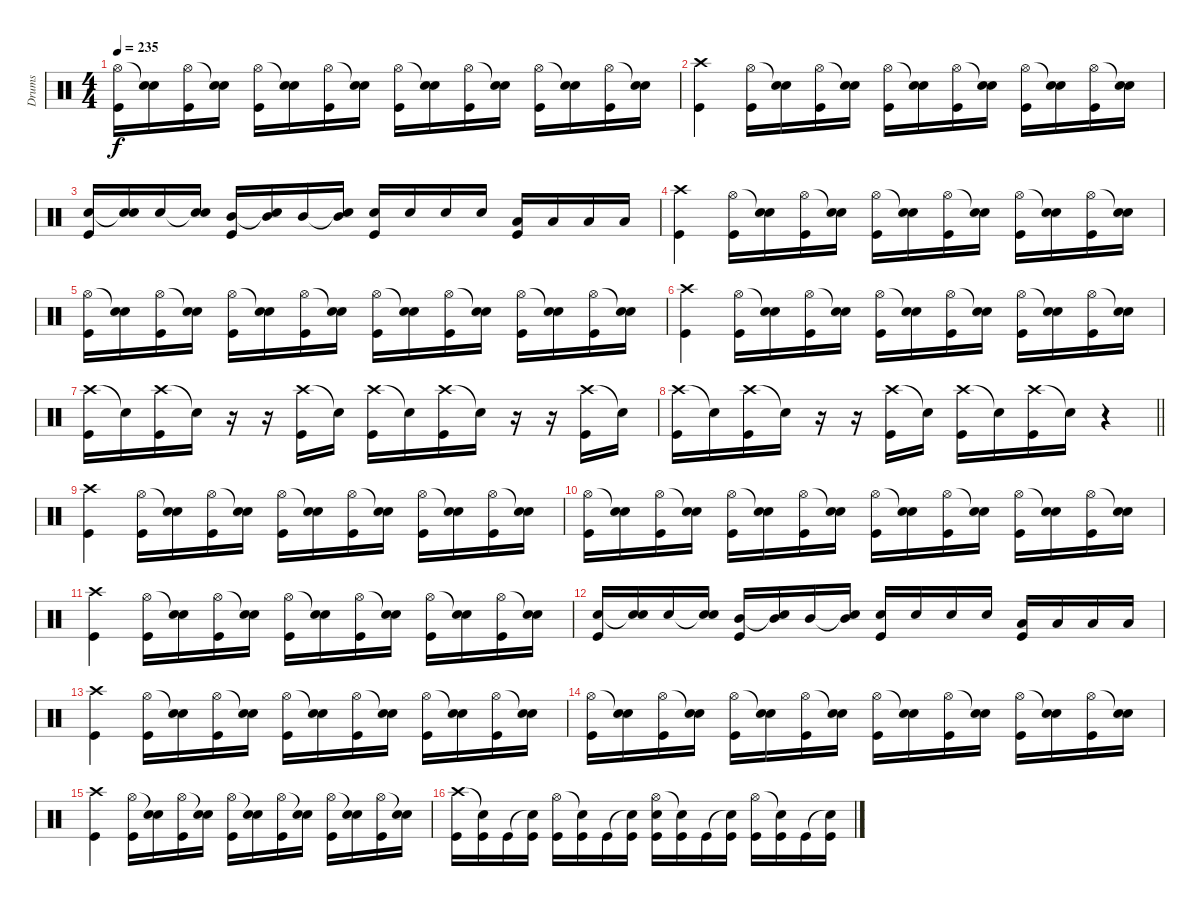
\track ("Drums" "Drums") {instrument percussion}
\staff {score}
\articulation defaults
\ts (4 4)
\tempo 235
\clef neutral
\ks c
("Hi-Hat (open)" "Kick (hit)").16{dy f} ("Snare (hit)"{t} "Electric Snare (hit)").16 ("Hi-Hat (open)" "Kick (hit)").16 ("Snare (hit)"{t} "Electric Snare (hit)").16 ("Hi-Hat (open)" "Kick (hit)").16 ("Snare (hit)"{t} "Electric Snare (hit)").16 ("Hi-Hat (open)" "Kick (hit)").16 ("Snare (hit)"{t} "Electric Snare (hit)").16 ("Hi-Hat (open)" "Kick (hit)").16 ("Snare (hit)"{t} "Electric Snare (hit)").16 ("Hi-Hat (open)" "Kick (hit)").16 ("Snare (hit)"{t} "Electric Snare (hit)").16 ("Hi-Hat (open)" "Kick (hit)").16 ("Snare (hit)"{t} "Electric Snare (hit)").16 ("Hi-Hat (open)" "Kick (hit)").16 ("Snare (hit)"{t} "Electric Snare (hit)").16 |
("Crash high (hit)" "Kick (hit)").4 ("Hi-Hat (open)" "Kick (hit)").16 ("Snare (hit)"{t} "Electric Snare (hit)").16 ("Hi-Hat (open)" "Kick (hit)").16 ("Snare (hit)"{t} "Electric Snare (hit)").16 ("Hi-Hat (open)" "Kick (hit)").16 ("Snare (hit)"{t} "Electric Snare (hit)").16 ("Hi-Hat (open)" "Kick (hit)").16 ("Snare (hit)"{t} "Electric Snare (hit)").16 ("Hi-Hat (open)" "Kick (hit)").16 ("Snare (hit)"{t} "Electric Snare (hit)").16 ("Hi-Hat (open)" "Kick (hit)").16 ("Snare (hit)"{t} "Electric Snare (hit)").16 |
("Electric Snare (hit)" "Kick (hit)").16 ("Snare (hit)"{t} "Electric Snare (hit)").16 "Electric Snare (hit)".16 ("Snare (hit)"{t} "Electric Snare (hit)").16 ("Mid Tom (hit)" "Kick (hit)").16 ("Snare (hit)"{t} "Mid Tom (hit)").16 "Mid Tom (hit)".16 ("Snare (hit)"{t} "Mid Tom (hit)").16 ("Electric Snare (hit)" "Kick (hit)").16 "Electric Snare (hit)".16 "Electric Snare (hit)".16 "Electric Snare (hit)".16 ("Low Tom (hit)" "Kick (hit)").16 "Low Tom (hit)".16 "Low Tom (hit)".16 "Low Tom (hit)".16 |
("Crash high (hit)" "Kick (hit)").4 ("Hi-Hat (open)" "Kick (hit)").16 ("Snare (hit)"{t} "Electric Snare (hit)").16 ("Hi-Hat (open)" "Kick (hit)").16 ("Snare (hit)"{t} "Electric Snare (hit)").16 ("Hi-Hat (open)" "Kick (hit)").16 ("Snare (hit)"{t} "Electric Snare (hit)").16 ("Hi-Hat (open)" "Kick (hit)").16 ("Snare (hit)"{t} "Electric Snare (hit)").16 ("Hi-Hat (open)" "Kick (hit)").16 ("Snare (hit)"{t} "Electric Snare (hit)").16 ("Hi-Hat (open)" "Kick (hit)").16 ("Snare (hit)"{t} "Electric Snare (hit)").16 |
("Hi-Hat (open)" "Kick (hit)").16 ("Snare (hit)"{t} "Electric Snare (hit)").16 ("Hi-Hat (open)" "Kick (hit)").16 ("Snare (hit)"{t} "Electric Snare (hit)").16 ("Hi-Hat (open)" "Kick (hit)").16 ("Snare (hit)"{t} "Electric Snare (hit)").16 ("Hi-Hat (open)" "Kick (hit)").16 ("Snare (hit)"{t} "Electric Snare (hit)").16 ("Hi-Hat (open)" "Kick (hit)").16 ("Snare (hit)"{t} "Electric Snare (hit)").16 ("Hi-Hat (open)" "Kick (hit)").16 ("Snare (hit)"{t} "Electric Snare (hit)").16 ("Hi-Hat (open)" "Kick (hit)").16 ("Snare (hit)"{t} "Electric Snare (hit)").16 ("Hi-Hat (open)" "Kick (hit)").16 ("Snare (hit)"{t} "Electric Snare (hit)").16 |
("Crash high (hit)" "Kick (hit)").4 ("Hi-Hat (open)" "Kick (hit)").16 ("Snare (hit)"{t} "Electric Snare (hit)").16 ("Hi-Hat (open)" "Kick (hit)").16 ("Snare (hit)"{t} "Electric Snare (hit)").16 ("Hi-Hat (open)" "Kick (hit)").16 ("Snare (hit)"{t} "Electric Snare (hit)").16 ("Hi-Hat (open)" "Kick (hit)").16 ("Snare (hit)"{t} "Electric Snare (hit)").16 ("Hi-Hat (open)" "Kick (hit)").16 ("Snare (hit)"{t} "Electric Snare (hit)").16 ("Hi-Hat (open)" "Kick (hit)").16 ("Snare (hit)"{t} "Electric Snare (hit)").16 |
("Crash high (hit)" "Kick (hit)").16 "Snare (hit)"{t}.16 ("Crash high (hit)" "Kick (hit)").16 "Snare (hit)"{t}.16 r.16 r.16 ("Crash high (hit)" "Kick (hit)").16 "Snare (hit)"{t}.16 ("Crash high (hit)" "Kick (hit)").16 "Snare (hit)"{t}.16 ("Crash high (hit)" "Kick (hit)").16 "Snare (hit)"{t}.16 r.16 r.16 ("Crash high (hit)" "Kick (hit)").16 "Snare (hit)"{t}.16 |
\barLineRight lightlight
("Crash high (hit)" "Kick (hit)").16 "Snare (hit)"{t}.16 ("Crash high (hit)" "Kick (hit)").16 "Snare (hit)"{t}.16 r.16 r.16 ("Crash high (hit)" "Kick (hit)").16 "Snare (hit)"{t}.16 ("Crash high (hit)" "Kick (hit)").16 "Snare (hit)"{t}.16 ("Crash high (hit)" "Kick (hit)").16 "Snare (hit)"{t}.16 r.4 |
("Crash high (hit)" "Kick (hit)").4 ("Hi-Hat (open)" "Kick (hit)").16 ("Snare (hit)"{t} "Electric Snare (hit)").16 ("Hi-Hat (open)" "Kick (hit)").16 ("Snare (hit)"{t} "Electric Snare (hit)").16 ("Hi-Hat (open)" "Kick (hit)").16 ("Snare (hit)"{t} "Electric Snare (hit)").16 ("Hi-Hat (open)" "Kick (hit)").16 ("Snare (hit)"{t} "Electric Snare (hit)").16 ("Hi-Hat (open)" "Kick (hit)").16 ("Snare (hit)"{t} "Electric Snare (hit)").16 ("Hi-Hat (open)" "Kick (hit)").16 ("Snare (hit)"{t} "Electric Snare (hit)").16 |
("Hi-Hat (open)" "Kick (hit)").16 ("Snare (hit)"{t} "Electric Snare (hit)").16 ("Hi-Hat (open)" "Kick (hit)").16 ("Snare (hit)"{t} "Electric Snare (hit)").16 ("Hi-Hat (open)" "Kick (hit)").16 ("Snare (hit)"{t} "Electric Snare (hit)").16 ("Hi-Hat (open)" "Kick (hit)").16 ("Snare (hit)"{t} "Electric Snare (hit)").16 ("Hi-Hat (open)" "Kick (hit)").16 ("Snare (hit)"{t} "Electric Snare (hit)").16 ("Hi-Hat (open)" "Kick (hit)").16 ("Snare (hit)"{t} "Electric Snare (hit)").16 ("Hi-Hat (open)" "Kick (hit)").16 ("Snare (hit)"{t} "Electric Snare (hit)").16 ("Hi-Hat (open)" "Kick (hit)").16 ("Snare (hit)"{t} "Electric Snare (hit)").16 |
("Crash high (hit)" "Kick (hit)").4 ("Hi-Hat (open)" "Kick (hit)").16 ("Snare (hit)"{t} "Electric Snare (hit)").16 ("Hi-Hat (open)" "Kick (hit)").16 ("Snare (hit)"{t} "Electric Snare (hit)").16 ("Hi-Hat (open)" "Kick (hit)").16 ("Snare (hit)"{t} "Electric Snare (hit)").16 ("Hi-Hat (open)" "Kick (hit)").16 ("Snare (hit)"{t} "Electric Snare (hit)").16 ("Hi-Hat (open)" "Kick (hit)").16 ("Snare (hit)"{t} "Electric Snare (hit)").16 ("Hi-Hat (open)" "Kick (hit)").16 ("Snare (hit)"{t} "Electric Snare (hit)").16 |
("Electric Snare (hit)" "Kick (hit)").16 ("Snare (hit)"{t} "Electric Snare (hit)").16 "Electric Snare (hit)".16 ("Snare (hit)"{t} "Electric Snare (hit)").16 ("Mid Tom (hit)" "Kick (hit)").16 ("Snare (hit)"{t} "Mid Tom (hit)").16 "Mid Tom (hit)".16 ("Snare (hit)"{t} "Mid Tom (hit)").16 ("Electric Snare (hit)" "Kick (hit)").16 "Electric Snare (hit)".16 "Electric Snare (hit)".16 "Electric Snare (hit)".16 ("Low Tom (hit)" "Kick (hit)").16 "Low Tom (hit)".16 "Low Tom (hit)".16 "Low Tom (hit)".16 |
("Crash high (hit)" "Kick (hit)").4 ("Hi-Hat (open)" "Kick (hit)").16 ("Snare (hit)"{t} "Electric Snare (hit)").16 ("Hi-Hat (open)" "Kick (hit)").16 ("Snare (hit)"{t} "Electric Snare (hit)").16 ("Hi-Hat (open)" "Kick (hit)").16 ("Snare (hit)"{t} "Electric Snare (hit)").16 ("Hi-Hat (open)" "Kick (hit)").16 ("Snare (hit)"{t} "Electric Snare (hit)").16 ("Hi-Hat (open)" "Kick (hit)").16 ("Snare (hit)"{t} "Electric Snare (hit)").16 ("Hi-Hat (open)" "Kick (hit)").16 ("Snare (hit)"{t} "Electric Snare (hit)").16 |
("Hi-Hat (open)" "Kick (hit)").16 ("Snare (hit)"{t} "Electric Snare (hit)").16 ("Hi-Hat (open)" "Kick (hit)").16 ("Snare (hit)"{t} "Electric Snare (hit)").16 ("Hi-Hat (open)" "Kick (hit)").16 ("Snare (hit)"{t} "Electric Snare (hit)").16 ("Hi-Hat (open)" "Kick (hit)").16 ("Snare (hit)"{t} "Electric Snare (hit)").16 ("Hi-Hat (open)" "Kick (hit)").16 ("Snare (hit)"{t} "Electric Snare (hit)").16 ("Hi-Hat (open)" "Kick (hit)").16 ("Snare (hit)"{t} "Electric Snare (hit)").16 ("Hi-Hat (open)" "Kick (hit)").16 ("Snare (hit)"{t} "Electric Snare (hit)").16 ("Hi-Hat (open)" "Kick (hit)").16 ("Snare (hit)"{t} "Electric Snare (hit)").16 |
("Crash high (hit)" "Kick (hit)").4 ("Hi-Hat (open)" "Kick (hit)").16 ("Snare (hit)"{t} "Electric Snare (hit)").16 ("Hi-Hat (open)" "Kick (hit)").16 ("Snare (hit)"{t} "Electric Snare (hit)").16 ("Hi-Hat (open)" "Kick (hit)").16 ("Snare (hit)"{t} "Electric Snare (hit)").16 ("Hi-Hat (open)" "Kick (hit)").16 ("Snare (hit)"{t} "Electric Snare (hit)").16 ("Hi-Hat (open)" "Kick (hit)").16 ("Snare (hit)"{t} "Electric Snare (hit)").16 ("Hi-Hat (open)" "Kick (hit)").16 ("Snare (hit)"{t} "Electric Snare (hit)").16 |
("Crash high (hit)" "Kick (hit)").16 ("Snare (hit)"{t} "Kick (hit)").16 "Kick (hit)".16 ("Snare (hit)"{t} "Kick (hit)").16 ("Hi-Hat (open)" "Kick (hit)").16 ("Snare (hit)"{t} "Kick (hit)").16 "Kick (hit)".16 ("Snare (hit)"{t} "Kick (hit)").16 ("Hi-Hat (open)" "Electric Snare (hit)" "Kick (hit)").16 ("Snare (hit)"{t} "Kick (hit)").16 "Kick (hit)".16 ("Snare (hit)"{t} "Kick (hit)").16 ("Hi-Hat (open)" "Kick (hit)").16 ("Snare (hit)"{t} "Kick (hit)").16 "Kick (hit)".16 ("Snare (hit)"{t} "Kick (hit)").16
